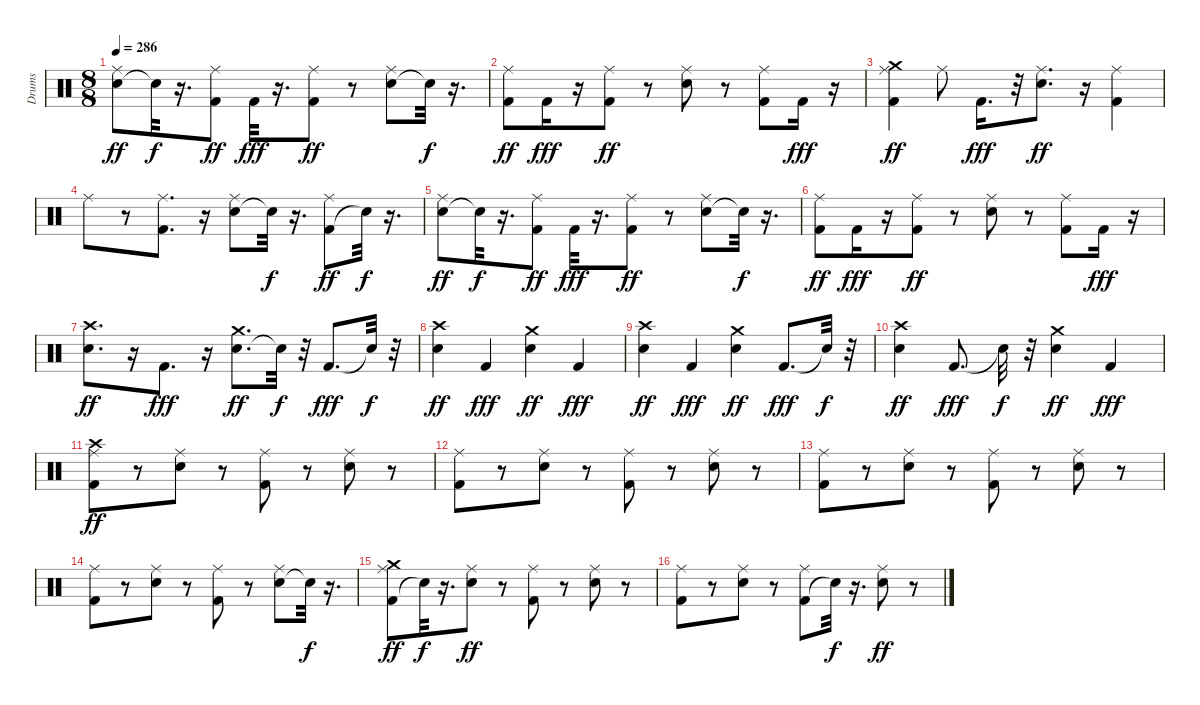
\track ("Drums" "Drums") {instrument percussion}
\staff {score}
\articulation defaults
\ts (8 8)
\tempo 286
\clef neutral
\ks c
("Snare (hit) 2" "Ride (middle)").8{dy ff} "Snare (hit)"{t}.32{dy f} r.16{d} ("Kick (hit) 2" "Ride (middle)").8{dy ff} "Kick (hit) 2".32{dy fff} r.16{d} ("Kick (hit) 2" "Ride (middle)").8{dy ff} r.8 ("Snare (hit) 2" "Ride (middle)").8 "Snare (hit)"{t}.32{dy f} r.16{d} |
("Kick (hit) 2" "Ride (middle)").8{dy ff} "Kick (hit) 2".16{dy fff} r.16 ("Kick (hit) 2" "Ride (middle)").8{dy ff} r.8 ("Snare (hit) 2" "Ride (middle)").8 r.8 ("Kick (hit) 2" "Ride (middle)").8 "Kick (hit) 2".16{dy fff} r.16 |
("Kick (hit) 2" "Ride (middle)" "Crash medium (hit)").4{dy ff} "Ride (middle)".8 "Kick (hit) 2".16{d dy fff} r.32 ("Snare (hit) 2" "Ride (middle)").8{d dy ff} r.16 ("Kick (hit) 2" "Ride (middle)").4 |
"Ride (middle)".8 r.8 ("Kick (hit) 2" "Ride (middle)").8{d} r.16 ("Snare (hit) 2" "Ride (middle)").8 "Snare (hit)"{t}.32{dy f} r.16{d} ("Kick (hit) 2" "Ride (middle)").8{dy ff} "Snare (hit)"{t}.32{dy f} r.16{d} |
("Snare (hit) 2" "Ride (middle)").8{dy ff} "Snare (hit)"{t}.32{dy f} r.16{d} ("Kick (hit) 2" "Ride (middle)").8{dy ff} "Kick (hit) 2".32{dy fff} r.16{d} ("Kick (hit) 2" "Ride (middle)").8{dy ff} r.8 ("Snare (hit) 2" "Ride (middle)").8 "Snare (hit)"{t}.32{dy f} r.16{d} |
("Kick (hit) 2" "Ride (middle)").8{dy ff} "Kick (hit) 2".16{dy fff} r.16 ("Kick (hit) 2" "Ride (middle)").8{dy ff} r.8 ("Snare (hit) 2" "Ride (middle)").8 r.8 ("Kick (hit) 2" "Ride (middle)").8 "Kick (hit) 2".16{dy fff} r.16 |
("Snare (hit) 2" "Crash high (hit)").8{d dy ff} r.16 "Kick (hit) 2".8{d dy fff} r.16 ("Snare (hit) 2" "Crash medium (hit)").8{d dy ff} "Snare (hit)"{t}.32{dy f} r.32 "Kick (hit) 2".8{d dy fff} "Snare (hit)"{t}.32{dy f} r.32 |
("Snare (hit) 2" "Crash high (hit)").4{dy ff} "Kick (hit) 2".4{dy fff} ("Snare (hit) 2" "Crash medium (hit)").4{dy ff} "Kick (hit) 2".4{dy fff} |
("Snare (hit) 2" "Crash high (hit)").4{dy ff} "Kick (hit) 2".4{dy fff} ("Snare (hit) 2" "Crash medium (hit)").4{dy ff} "Kick (hit) 2".8{d dy fff} "Snare (hit)"{t}.32{dy f} r.32 |
("Snare (hit) 2" "Crash high (hit)").4{dy ff} "Kick (hit) 2".8{d dy fff} "Snare (hit)"{t}.32{dy f} r.32 ("Snare (hit) 2" "Crash medium (hit)").4{dy ff} "Kick (hit) 2".4{dy fff} |
("Kick (hit) 2" "Ride (middle)" "Crash high (hit)").8{dy ff} r.8 ("Snare (hit) 2" "Ride (middle)").8 r.8 ("Kick (hit) 2" "Ride (middle)").8 r.8 ("Snare (hit) 2" "Ride (middle)").8 r.8 |
("Kick (hit) 2" "Ride (middle)").8 r.8 ("Snare (hit) 2" "Ride (middle)").8 r.8 ("Kick (hit) 2" "Ride (middle)").8 r.8 ("Snare (hit) 2" "Ride (middle)").8 r.8 |
("Kick (hit) 2" "Ride (middle)").8 r.8 ("Snare (hit) 2" "Ride (middle)").8 r.8 ("Kick (hit) 2" "Ride (middle)").8 r.8 ("Snare (hit) 2" "Ride (middle)").8 r.8 |
("Kick (hit) 2" "Ride (middle)").8 r.8 ("Snare (hit) 2" "Ride (middle)").8 r.8 ("Kick (hit) 2" "Ride (middle)").8 r.8 ("Snare (hit) 2" "Ride (middle)").8 "Snare (hit)"{t}.32{dy f} r.16{d} |
("Kick (hit) 2" "Ride (middle)" "Crash medium (hit)").8{dy ff} "Snare (hit)"{t}.32{dy f} r.16{d} ("Snare (hit) 2" "Ride (middle)").8{dy ff} r.8 ("Kick (hit) 2" "Ride (middle)").8 r.8 ("Snare (hit) 2" "Ride (middle)").8 r.8 |
("Kick (hit) 2" "Ride (middle)").8 r.8 ("Snare (hit) 2" "Ride (middle)").8 r.8 ("Kick (hit) 2" "Ride (middle)").8 "Snare (hit)"{t}.32{dy f} r.16{d} ("Snare (hit) 2" "Ride (middle)").8{dy ff} r.8
